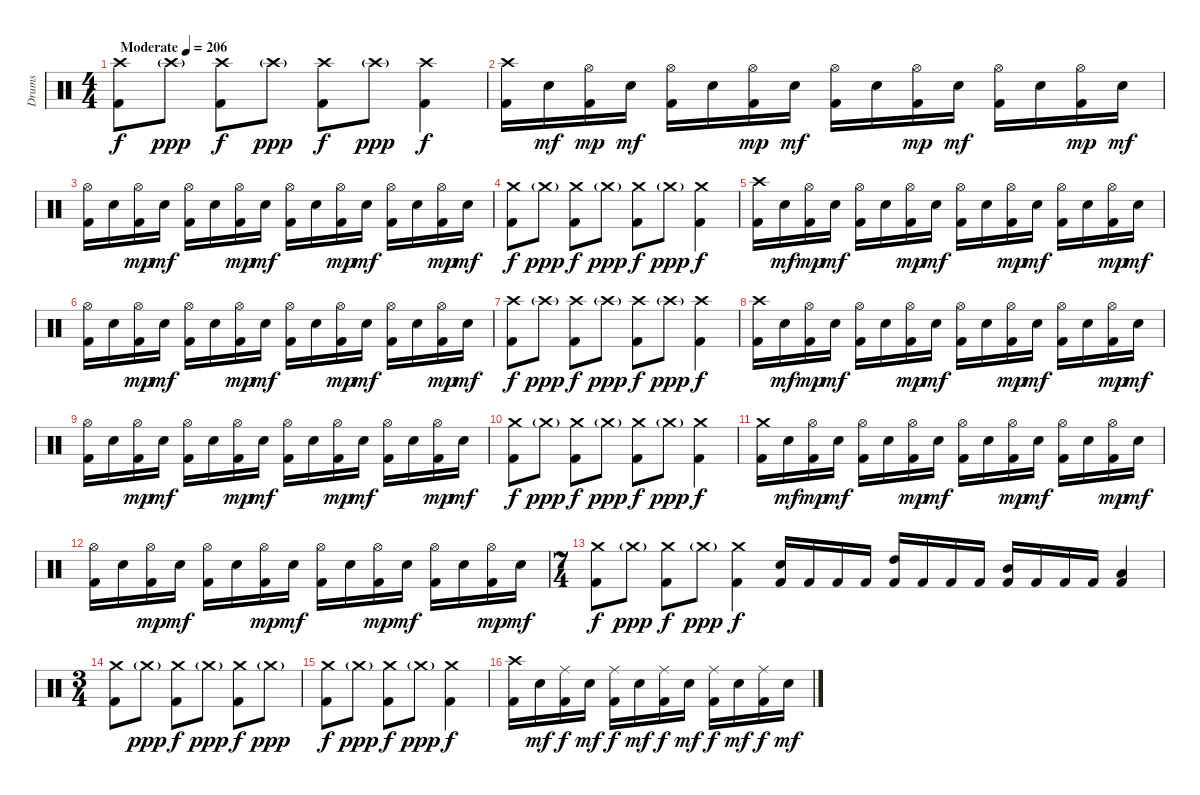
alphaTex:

\track ("Drums" "Drums") {instrument percussion}
\staff {score}
\articulation defaults
\ts (4 4)
\tempo (206 "Moderate")
\clef neutral
\ks c
("Crash high (hit)" "Kick (hit) 2").8{dy f} "Crash high (hit)"{g}.8{dy ppp} ("Crash high (hit)" "Kick (hit) 2").8{dy f} "Crash high (hit)"{g}.8{dy ppp} ("Crash high (hit)" "Kick (hit) 2").8{dy f} "Crash high (hit)"{g}.8{dy ppp} ("Crash high (hit)" "Kick (hit) 2").4{dy f} |
("Crash high (hit)" "Kick (hit) 2").16 "Electric Snare (hit)".16{dy mf} ("Hi-Hat (open)" "Kick (hit) 2").16{dy mp} "Electric Snare (hit)".16{dy mf} ("Hi-Hat (open)" "Kick (hit) 2").16 "Electric Snare (hit)".16 ("Hi-Hat (open)" "Kick (hit) 2").16{dy mp} "Electric Snare (hit)".16{dy mf} ("Hi-Hat (open)" "Kick (hit) 2").16 "Electric Snare (hit)".16 ("Hi-Hat (open)" "Kick (hit) 2").16{dy mp} "Electric Snare (hit)".16{dy mf} ("Hi-Hat (open)" "Kick (hit) 2").16 "Electric Snare (hit)".16 ("Hi-Hat (open)" "Kick (hit) 2").16{dy mp} "Electric Snare (hit)".16{dy mf} |
("Hi-Hat (open)" "Kick (hit) 2").16 "Electric Snare (hit)".16 ("Hi-Hat (open)" "Kick (hit) 2").16{dy mp} "Electric Snare (hit)".16{dy mf} ("Hi-Hat (open)" "Kick (hit) 2").16 "Electric Snare (hit)".16 ("Hi-Hat (open)" "Kick (hit) 2").16{dy mp} "Electric Snare (hit)".16{dy mf} ("Hi-Hat (open)" "Kick (hit) 2").16 "Electric Snare (hit)".16 ("Hi-Hat (open)" "Kick (hit) 2").16{dy mp} "Electric Snare (hit)".16{dy mf} ("Hi-Hat (open)" "Kick (hit) 2").16 "Electric Snare (hit)".16 ("Hi-Hat (open)" "Kick (hit) 2").16{dy mp} "Electric Snare (hit)".16{dy mf} |
("Crash medium (hit)" "Kick (hit) 2").8{dy f} "Crash medium (hit)"{g}.8{dy ppp} ("Crash medium (hit)" "Kick (hit) 2").8{dy f} "Crash medium (hit)"{g}.8{dy ppp} ("Crash medium (hit)" "Kick (hit) 2").8{dy f} "Crash medium (hit)"{g}.8{dy ppp} ("Crash medium (hit)" "Kick (hit) 2").4{dy f} |
("Crash high (hit)" "Kick (hit) 2").16 "Electric Snare (hit)".16{dy mf} ("Hi-Hat (open)" "Kick (hit) 2").16{dy mp} "Electric Snare (hit)".16{dy mf} ("Hi-Hat (open)" "Kick (hit) 2").16 "Electric Snare (hit)".16 ("Hi-Hat (open)" "Kick (hit) 2").16{dy mp} "Electric Snare (hit)".16{dy mf} ("Hi-Hat (open)" "Kick (hit) 2").16 "Electric Snare (hit)".16 ("Hi-Hat (open)" "Kick (hit) 2").16{dy mp} "Electric Snare (hit)".16{dy mf} ("Hi-Hat (open)" "Kick (hit) 2").16 "Electric Snare (hit)".16 ("Hi-Hat (open)" "Kick (hit) 2").16{dy mp} "Electric Snare (hit)".16{dy mf} |
("Hi-Hat (open)" "Kick (hit) 2").16 "Electric Snare (hit)".16 ("Hi-Hat (open)" "Kick (hit) 2").16{dy mp} "Electric Snare (hit)".16{dy mf} ("Hi-Hat (open)" "Kick (hit) 2").16 "Electric Snare (hit)".16 ("Hi-Hat (open)" "Kick (hit) 2").16{dy mp} "Electric Snare (hit)".16{dy mf} ("Hi-Hat (open)" "Kick (hit) 2").16 "Electric Snare (hit)".16 ("Hi-Hat (open)" "Kick (hit) 2").16{dy mp} "Electric Snare (hit)".16{dy mf} ("Hi-Hat (open)" "Kick (hit) 2").16 "Electric Snare (hit)".16 ("Hi-Hat (open)" "Kick (hit) 2").16{dy mp} "Electric Snare (hit)".16{dy mf} |
("Crash high (hit)" "Kick (hit) 2").8{dy f} "Crash high (hit)"{g}.8{dy ppp} ("Crash high (hit)" "Kick (hit) 2").8{dy f} "Crash high (hit)"{g}.8{dy ppp} ("Crash high (hit)" "Kick (hit) 2").8{dy f} "Crash high (hit)"{g}.8{dy ppp} ("Crash high (hit)" "Kick (hit) 2").4{dy f} |
("Crash high (hit)" "Kick (hit) 2").16 "Electric Snare (hit)".16{dy mf} ("Hi-Hat (open)" "Kick (hit) 2").16{dy mp} "Electric Snare (hit)".16{dy mf} ("Hi-Hat (open)" "Kick (hit) 2").16 "Electric Snare (hit)".16 ("Hi-Hat (open)" "Kick (hit) 2").16{dy mp} "Electric Snare (hit)".16{dy mf} ("Hi-Hat (open)" "Kick (hit) 2").16 "Electric Snare (hit)".16 ("Hi-Hat (open)" "Kick (hit) 2").16{dy mp} "Electric Snare (hit)".16{dy mf} ("Hi-Hat (open)" "Kick (hit) 2").16 "Electric Snare (hit)".16 ("Hi-Hat (open)" "Kick (hit) 2").16{dy mp} "Electric Snare (hit)".16{dy mf} |
("Hi-Hat (open)" "Kick (hit) 2").16 "Electric Snare (hit)".16 ("Hi-Hat (open)" "Kick (hit) 2").16{dy mp} "Electric Snare (hit)".16{dy mf} ("Hi-Hat (open)" "Kick (hit) 2").16 "Electric Snare (hit)".16 ("Hi-Hat (open)" "Kick (hit) 2").16{dy mp} "Electric Snare (hit)".16{dy mf} ("Hi-Hat (open)" "Kick (hit) 2").16 "Electric Snare (hit)".16 ("Hi-Hat (open)" "Kick (hit) 2").16{dy mp} "Electric Snare (hit)".16{dy mf} ("Hi-Hat (open)" "Kick (hit) 2").16 "Electric Snare (hit)".16 ("Hi-Hat (open)" "Kick (hit) 2").16{dy mp} "Electric Snare (hit)".16{dy mf} |
("Crash medium (hit)" "Kick (hit) 2").8{dy f} "Crash medium (hit)"{g}.8{dy ppp} ("Crash medium (hit)" "Kick (hit) 2").8{dy f} "Crash medium (hit)"{g}.8{dy ppp} ("Crash medium (hit)" "Kick (hit) 2").8{dy f} "Crash medium (hit)"{g}.8{dy ppp} ("Crash medium (hit)" "Kick (hit) 2").4{dy f} |
("Crash medium (hit)" "Kick (hit) 2").16 "Electric Snare (hit)".16{dy mf} ("Hi-Hat (open)" "Kick (hit) 2").16{dy mp} "Electric Snare (hit)".16{dy mf} ("Hi-Hat (open)" "Kick (hit) 2").16 "Electric Snare (hit)".16 ("Hi-Hat (open)" "Kick (hit) 2").16{dy mp} "Electric Snare (hit)".16{dy mf} ("Hi-Hat (open)" "Kick (hit) 2").16 "Electric Snare (hit)".16 ("Hi-Hat (open)" "Kick (hit) 2").16{dy mp} "Electric Snare (hit)".16{dy mf} ("Hi-Hat (open)" "Kick (hit) 2").16 "Electric Snare (hit)".16 ("Hi-Hat (open)" "Kick (hit) 2").16{dy mp} "Electric Snare (hit)".16{dy mf} |
("Hi-Hat (open)" "Kick (hit) 2").16 "Electric Snare (hit)".16 ("Hi-Hat (open)" "Kick (hit) 2").16{dy mp} "Electric Snare (hit)".16{dy mf} ("Hi-Hat (open)" "Kick (hit) 2").16 "Electric Snare (hit)".16 ("Hi-Hat (open)" "Kick (hit) 2").16{dy mp} "Electric Snare (hit)".16{dy mf} ("Hi-Hat (open)" "Kick (hit) 2").16 "Electric Snare (hit)".16 ("Hi-Hat (open)" "Kick (hit) 2").16{dy mp} "Electric Snare (hit)".16{dy mf} ("Hi-Hat (open)" "Kick (hit) 2").16 "Electric Snare (hit)".16 ("Hi-Hat (open)" "Kick (hit) 2").16{dy mp} "Electric Snare (hit)".16{dy mf} |
\ts (7 4)
("Crash medium (hit)" "Kick (hit) 2").8{dy f} "Crash medium (hit)"{g}.8{dy ppp} ("Crash medium (hit)" "Kick (hit) 2").8{dy f} "Crash medium (hit)"{g}.8{dy ppp} ("Crash medium (hit)" "Kick (hit) 2").4{dy f} ("Electric Snare (hit)" "Kick (hit) 2").16 "Kick (hit) 2".16 "Kick (hit) 2".16 "Kick (hit) 2".16 ("High Tom (hit)" "Kick (hit) 2").16 "Kick (hit) 2".16 "Kick (hit) 2".16 "Kick (hit) 2".16 ("Mid Tom (hit)" "Kick (hit) 2").16 "Kick (hit) 2".16 "Kick (hit) 2".16 "Kick (hit) 2".16 ("Low Tom (hit)" "Kick (hit) 2").4 |
\ts (3 4)
("Crash medium (hit)" "Kick (hit) 2").8 "Crash medium (hit)"{g}.8{dy ppp} ("Crash medium (hit)" "Kick (hit) 2").8{dy f} "Crash medium (hit)"{g}.8{dy ppp} ("Crash medium (hit)" "Kick (hit) 2").8{dy f} "Crash medium (hit)"{g}.8{dy ppp} |
("Crash medium (hit)" "Kick (hit) 2").8{dy f} "Crash medium (hit)"{g}.8{dy ppp} ("Crash medium (hit)" "Kick (hit) 2").8{dy f} "Crash medium (hit)"{g}.8{dy ppp} ("Crash medium (hit)" "Kick (hit) 2").4{dy f} |
("Crash high (hit)" "Kick (hit) 2").16 "Electric Snare (hit)".16{dy mf} ("Ride (middle)" "Kick (hit) 2").16{dy f} "Electric Snare (hit)".16{dy mf} ("Ride (middle)" "Kick (hit) 2").16{dy f} "Electric Snare (hit)".16{dy mf} ("Ride (middle)" "Kick (hit) 2").16{dy f} "Electric Snare (hit)".16{dy mf} ("Ride (middle)" "Kick (hit) 2").16{dy f} "Electric Snare (hit)".16{dy mf} ("Ride (middle)" "Kick (hit) 2").16{dy f} "Electric Snare (hit)".16{dy mf}
